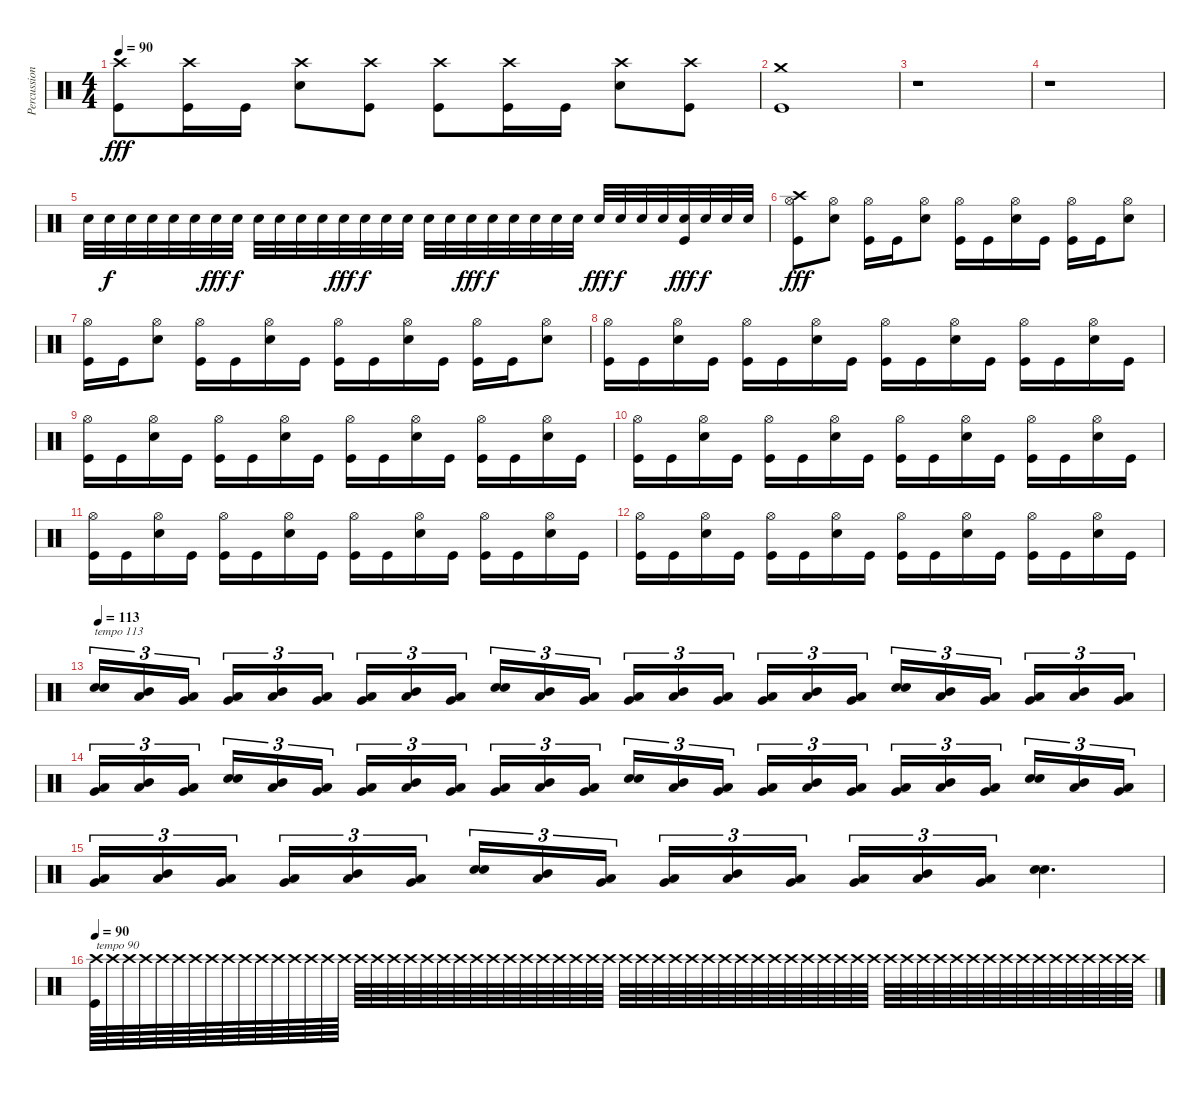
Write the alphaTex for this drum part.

\track ("Percussion" "Percussion") {instrument percussion}
\staff {score}
\articulation defaults
\ts (4 4)
\tempo 90
\clef neutral
\ks c
("Crash high (hit)" "Kick (hit)").8{dy fff} ("Crash high (hit)" "Kick (hit)").16 "Kick (hit)".16 ("Crash high (hit)" "Electric Snare (hit)").8 ("Crash high (hit)" "Kick (hit)").8 ("Crash high (hit)" "Kick (hit)").8 ("Crash high (hit)" "Kick (hit)").16 "Kick (hit)".16 ("Crash high (hit)" "Electric Snare (hit)").8 ("Crash high (hit)" "Kick (hit)").8 |
("Crash medium (hit)" "Kick (hit)").1 |
r.1 |
r.1 |
"Electric Snare (hit)".32 "Electric Snare (hit)".32{dy f} "Electric Snare (hit)".32 "Electric Snare (hit)".32 "Electric Snare (hit)".32 "Electric Snare (hit)".32 "Electric Snare (hit)".32{dy fff} "Electric Snare (hit)".32{dy f} "Electric Snare (hit)".32 "Electric Snare (hit)".32 "Electric Snare (hit)".32 "Electric Snare (hit)".32 "Electric Snare (hit)".32{dy fff} "Electric Snare (hit)".32{dy f} "Electric Snare (hit)".32 "Electric Snare (hit)".32 "Electric Snare (hit)".32 "Electric Snare (hit)".32 "Electric Snare (hit)".32{dy fff} "Electric Snare (hit)".32{dy f} "Electric Snare (hit)".32 "Electric Snare (hit)".32 "Electric Snare (hit)".32 "Electric Snare (hit)".32 "Electric Snare (hit)".32{dy fff} "Electric Snare (hit)".32{dy f} "Electric Snare (hit)".32 "Electric Snare (hit)".32 ("Electric Snare (hit)" "Kick (hit)").32{dy fff} "Electric Snare (hit)".32{dy f} "Electric Snare (hit)".32 "Electric Snare (hit)".32 |
("Hi-Hat (open)" "Crash high (hit)" "Kick (hit)").8{dy fff} ("Hi-Hat (open)" "Electric Snare (hit)").8 ("Hi-Hat (open)" "Kick (hit)").16 "Kick (hit)".16 ("Hi-Hat (open)" "Electric Snare (hit)").8 ("Hi-Hat (open)" "Kick (hit)").16 "Kick (hit)".16 ("Hi-Hat (open)" "Electric Snare (hit)").16 "Kick (hit)".16 ("Hi-Hat (open)" "Kick (hit)").16 "Kick (hit)".16 ("Hi-Hat (open)" "Electric Snare (hit)").8 |
("Hi-Hat (open)" "Kick (hit)").16 "Kick (hit)".16 ("Hi-Hat (open)" "Electric Snare (hit)").8 ("Hi-Hat (open)" "Kick (hit)").16 "Kick (hit)".16 ("Hi-Hat (open)" "Electric Snare (hit)").16 "Kick (hit)".16 ("Hi-Hat (open)" "Kick (hit)").16 "Kick (hit)".16 ("Hi-Hat (open)" "Electric Snare (hit)").16 "Kick (hit)".16 ("Hi-Hat (open)" "Kick (hit)").16 "Kick (hit)".16 ("Hi-Hat (open)" "Electric Snare (hit)").8 |
("Hi-Hat (open)" "Kick (hit)").16 "Kick (hit)".16 ("Hi-Hat (open)" "Electric Snare (hit)").16 "Kick (hit)".16 ("Hi-Hat (open)" "Kick (hit)").16 "Kick (hit)".16 ("Hi-Hat (open)" "Electric Snare (hit)").16 "Kick (hit)".16 ("Hi-Hat (open)" "Kick (hit)").16 "Kick (hit)".16 ("Hi-Hat (open)" "Electric Snare (hit)").16 "Kick (hit)".16 ("Hi-Hat (open)" "Kick (hit)").16 "Kick (hit)".16 ("Hi-Hat (open)" "Electric Snare (hit)").16 "Kick (hit)".16 |
("Hi-Hat (open)" "Kick (hit)").16 "Kick (hit)".16 ("Hi-Hat (open)" "Electric Snare (hit)").16 "Kick (hit)".16 ("Hi-Hat (open)" "Kick (hit)").16 "Kick (hit)".16 ("Hi-Hat (open)" "Electric Snare (hit)").16 "Kick (hit)".16 ("Hi-Hat (open)" "Kick (hit)").16 "Kick (hit)".16 ("Hi-Hat (open)" "Electric Snare (hit)").16 "Kick (hit)".16 ("Hi-Hat (open)" "Kick (hit)").16 "Kick (hit)".16 ("Hi-Hat (open)" "Electric Snare (hit)").16 "Kick (hit)".16 |
("Hi-Hat (open)" "Kick (hit)").16 "Kick (hit)".16 ("Hi-Hat (open)" "Electric Snare (hit)").16 "Kick (hit)".16 ("Hi-Hat (open)" "Kick (hit)").16 "Kick (hit)".16 ("Hi-Hat (open)" "Electric Snare (hit)").16 "Kick (hit)".16 ("Hi-Hat (open)" "Kick (hit)").16 "Kick (hit)".16 ("Hi-Hat (open)" "Electric Snare (hit)").16 "Kick (hit)".16 ("Hi-Hat (open)" "Kick (hit)").16 "Kick (hit)".16 ("Hi-Hat (open)" "Electric Snare (hit)").16 "Kick (hit)".16 |
("Hi-Hat (open)" "Kick (hit)").16 "Kick (hit)".16 ("Hi-Hat (open)" "Electric Snare (hit)").16 "Kick (hit)".16 ("Hi-Hat (open)" "Kick (hit)").16 "Kick (hit)".16 ("Hi-Hat (open)" "Electric Snare (hit)").16 "Kick (hit)".16 ("Hi-Hat (open)" "Kick (hit)").16 "Kick (hit)".16 ("Hi-Hat (open)" "Electric Snare (hit)").16 "Kick (hit)".16 ("Hi-Hat (open)" "Kick (hit)").16 "Kick (hit)".16 ("Hi-Hat (open)" "Electric Snare (hit)").16 "Kick (hit)".16 |
("Hi-Hat (open)" "Kick (hit)").16 "Kick (hit)".16 ("Hi-Hat (open)" "Electric Snare (hit)").16 "Kick (hit)".16 ("Hi-Hat (open)" "Kick (hit)").16 "Kick (hit)".16 ("Hi-Hat (open)" "Electric Snare (hit)").16 "Kick (hit)".16 ("Hi-Hat (open)" "Kick (hit)").16 "Kick (hit)".16 ("Hi-Hat (open)" "Electric Snare (hit)").16 "Kick (hit)".16 ("Hi-Hat (open)" "Kick (hit)").16 "Kick (hit)".16 ("Hi-Hat (open)" "Electric Snare (hit)").16 "Kick (hit)".16 |
\tempo 113
("Electric Snare (hit)" "Snare (hit) 2").16{tu (3 2) txt "tempo 113"} ("Mid Tom (hit)" "Low Tom (hit)").16{tu (3 2)} ("Very Low Tom (hit)" "Low Floor Tom (hit)").16{tu (3 2)} ("Low Tom (hit)" "Very Low Tom (hit)").16{tu (3 2)} ("Mid Tom (hit)" "Low Tom (hit)").16{tu (3 2)} ("Very Low Tom (hit)" "Low Floor Tom (hit)").16{tu (3 2)} ("Low Tom (hit)" "Very Low Tom (hit)").16{tu (3 2)} ("Mid Tom (hit)" "Low Tom (hit)").16{tu (3 2)} ("Very Low Tom (hit)" "Low Floor Tom (hit)").16{tu (3 2)} ("Electric Snare (hit)" "Snare (hit) 2").16{tu (3 2)} ("Mid Tom (hit)" "Low Tom (hit)").16{tu (3 2)} ("Very Low Tom (hit)" "Low Floor Tom (hit)").16{tu (3 2)} ("Low Tom (hit)" "Very Low Tom (hit)").16{tu (3 2)} ("Mid Tom (hit)" "Low Tom (hit)").16{tu (3 2)} ("Very Low Tom (hit)" "Low Floor Tom (hit)").16{tu (3 2)} ("Low Tom (hit)" "Very Low Tom (hit)").16{tu (3 2)} ("Mid Tom (hit)" "Low Tom (hit)").16{tu (3 2)} ("Very Low Tom (hit)" "Low Floor Tom (hit)").16{tu (3 2)} ("Electric Snare (hit)" "Snare (hit) 2").16{tu (3 2)} ("Mid Tom (hit)" "Low Tom (hit)").16{tu (3 2)} ("Very Low Tom (hit)" "Low Floor Tom (hit)").16{tu (3 2)} ("Low Tom (hit)" "Very Low Tom (hit)").16{tu (3 2)} ("Mid Tom (hit)" "Low Tom (hit)").16{tu (3 2)} ("Very Low Tom (hit)" "Low Floor Tom (hit)").16{tu (3 2)} |
("Low Tom (hit)" "Very Low Tom (hit)").16{tu (3 2)} ("Mid Tom (hit)" "Low Tom (hit)").16{tu (3 2)} ("Very Low Tom (hit)" "Low Floor Tom (hit)").16{tu (3 2)} ("Electric Snare (hit)" "Snare (hit) 2").16{tu (3 2)} ("Mid Tom (hit)" "Low Tom (hit)").16{tu (3 2)} ("Very Low Tom (hit)" "Low Floor Tom (hit)").16{tu (3 2)} ("Low Tom (hit)" "Very Low Tom (hit)").16{tu (3 2)} ("Mid Tom (hit)" "Low Tom (hit)").16{tu (3 2)} ("Very Low Tom (hit)" "Low Floor Tom (hit)").16{tu (3 2)} ("Low Tom (hit)" "Very Low Tom (hit)").16{tu (3 2)} ("Mid Tom (hit)" "Low Tom (hit)").16{tu (3 2)} ("Very Low Tom (hit)" "Low Floor Tom (hit)").16{tu (3 2)} ("Electric Snare (hit)" "Snare (hit) 2").16{tu (3 2)} ("Mid Tom (hit)" "Low Tom (hit)").16{tu (3 2)} ("Very Low Tom (hit)" "Low Floor Tom (hit)").16{tu (3 2)} ("Low Tom (hit)" "Very Low Tom (hit)").16{tu (3 2)} ("Mid Tom (hit)" "Low Tom (hit)").16{tu (3 2)} ("Very Low Tom (hit)" "Low Floor Tom (hit)").16{tu (3 2)} ("Low Tom (hit)" "Very Low Tom (hit)").16{tu (3 2)} ("Mid Tom (hit)" "Low Tom (hit)").16{tu (3 2)} ("Very Low Tom (hit)" "Low Floor Tom (hit)").16{tu (3 2)} ("Electric Snare (hit)" "Snare (hit) 2").16{tu (3 2)} ("Mid Tom (hit)" "Low Tom (hit)").16{tu (3 2)} ("Very Low Tom (hit)" "Low Floor Tom (hit)").16{tu (3 2)} |
("Low Tom (hit)" "Very Low Tom (hit)").16{tu (3 2)} ("Mid Tom (hit)" "Low Tom (hit)").16{tu (3 2)} ("Very Low Tom (hit)" "Low Floor Tom (hit)").16{tu (3 2)} ("Low Tom (hit)" "Very Low Tom (hit)").16{tu (3 2)} ("Mid Tom (hit)" "Low Tom (hit)").16{tu (3 2)} ("Very Low Tom (hit)" "Low Floor Tom (hit)").16{tu (3 2)} ("Electric Snare (hit)" "Snare (hit) 2").16{tu (3 2)} ("Mid Tom (hit)" "Low Tom (hit)").16{tu (3 2)} ("Very Low Tom (hit)" "Low Floor Tom (hit)").16{tu (3 2)} ("Low Tom (hit)" "Very Low Tom (hit)").16{tu (3 2)} ("Mid Tom (hit)" "Low Tom (hit)").16{tu (3 2)} ("Very Low Tom (hit)" "Low Floor Tom (hit)").16{tu (3 2)} ("Low Tom (hit)" "Very Low Tom (hit)").16{tu (3 2)} ("Mid Tom (hit)" "Low Tom (hit)").16{tu (3 2)} ("Very Low Tom (hit)" "Low Floor Tom (hit)").16{tu (3 2)} ("Electric Snare (hit)" "Snare (hit) 2").4{d} |
\tempo 90
("Crash high (hit)" "Kick (hit)").64{txt "tempo 90"} "Crash high (hit)".64 "Crash high (hit)".64 "Crash high (hit)".64 "Crash high (hit)".64 "Crash high (hit)".64 "Crash high (hit)".64 "Crash high (hit)".64 "Crash high (hit)".64 "Crash high (hit)".64 "Crash high (hit)".64 "Crash high (hit)".64 "Crash high (hit)".64 "Crash high (hit)".64 "Crash high (hit)".64 "Crash high (hit)".64 "Crash high (hit)".64 "Crash high (hit)".64 "Crash high (hit)".64 "Crash high (hit)".64 "Crash high (hit)".64 "Crash high (hit)".64 "Crash high (hit)".64 "Crash high (hit)".64 "Crash high (hit)".64 "Crash high (hit)".64 "Crash high (hit)".64 "Crash high (hit)".64 "Crash high (hit)".64 "Crash high (hit)".64 "Crash high (hit)".64 "Crash high (hit)".64 "Crash high (hit)".64 "Crash high (hit)".64 "Crash high (hit)".64 "Crash high (hit)".64 "Crash high (hit)".64 "Crash high (hit)".64 "Crash high (hit)".64 "Crash high (hit)".64 "Crash high (hit)".64 "Crash high (hit)".64 "Crash high (hit)".64 "Crash high (hit)".64 "Crash high (hit)".64 "Crash high (hit)".64 "Crash high (hit)".64 "Crash high (hit)".64 "Crash high (hit)".64 "Crash high (hit)".64 "Crash high (hit)".64 "Crash high (hit)".64 "Crash high (hit)".64 "Crash high (hit)".64 "Crash high (hit)".64 "Crash high (hit)".64 "Crash high (hit)".64 "Crash high (hit)".64 "Crash high (hit)".64 "Crash high (hit)".64 "Crash high (hit)".64 "Crash high (hit)".64 "Crash high (hit)".64 "Crash high (hit)".64
